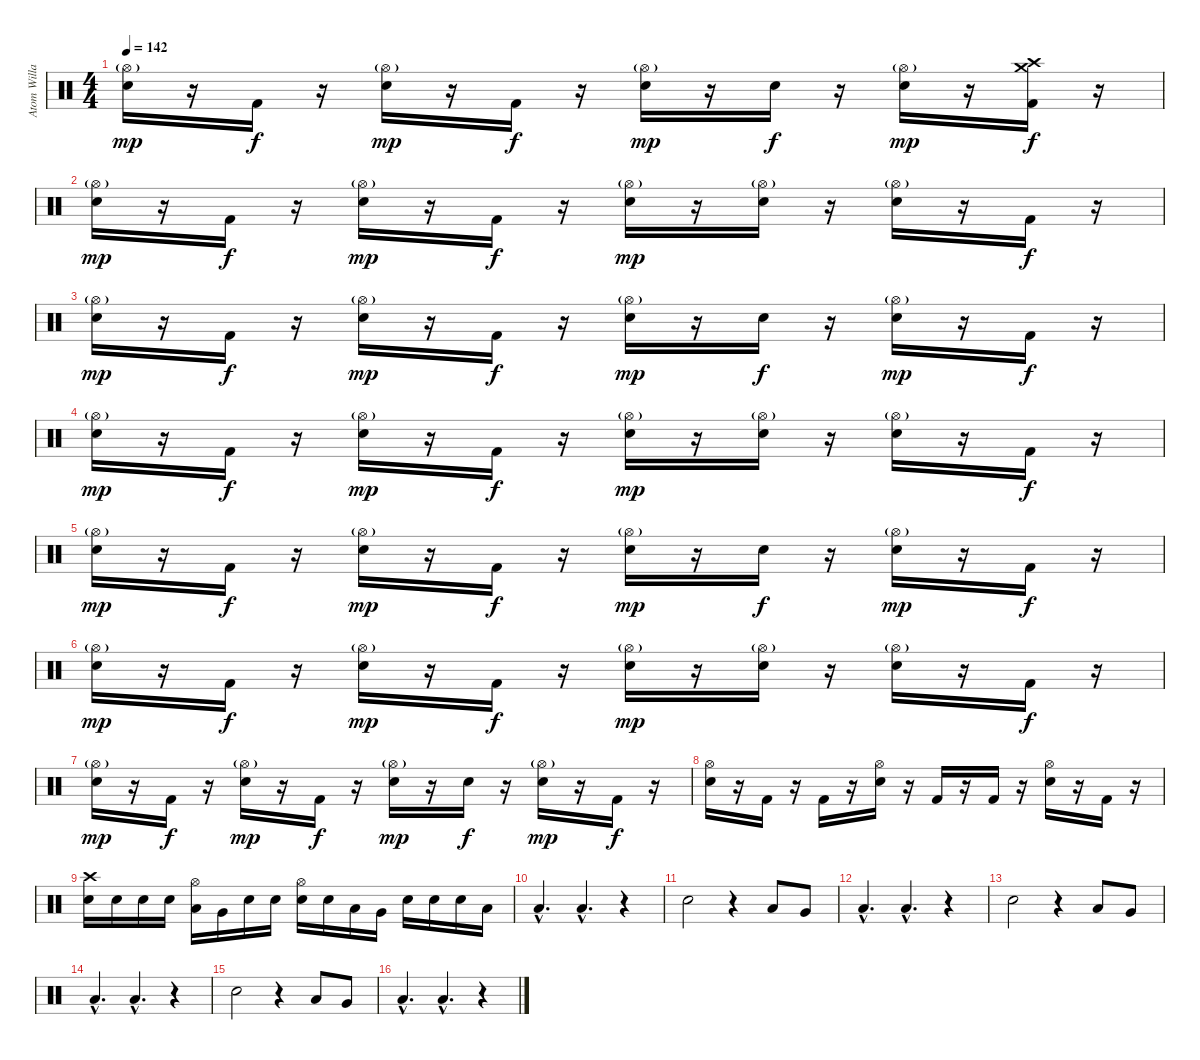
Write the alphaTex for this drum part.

\track ("Atom Willard" "Atom Willa") {instrument percussion}
\staff {score}
\articulation defaults
\ts (4 4)
\tempo 142
\clef neutral
\ks c
("Hi-Hat (open)"{g} "Electric Snare (hit)").16{dy mp} r.16 "Kick (hit) 2".16{dy f} r.16 ("Hi-Hat (open)"{g} "Electric Snare (hit)").16{dy mp} r.16 "Kick (hit) 2".16{dy f} r.16 ("Hi-Hat (open)"{g} "Electric Snare (hit)").16{dy mp} r.16 "Electric Snare (hit)".16{dy f} r.16 ("Hi-Hat (open)"{g} "Electric Snare (hit)").16{dy mp} r.16 ("Crash high (hit)" "Crash medium (hit)" "Kick (hit) 2").16{dy f} r.16 |
("Hi-Hat (open)"{g} "Electric Snare (hit)").16{dy mp} r.16 "Kick (hit) 2".16{dy f} r.16 ("Hi-Hat (open)"{g} "Electric Snare (hit)").16{dy mp} r.16 "Kick (hit) 2".16{dy f} r.16 ("Hi-Hat (open)"{g} "Electric Snare (hit)").16{dy mp} r.16 ("Hi-Hat (open)"{g} "Electric Snare (hit)").16 r.16 ("Hi-Hat (open)"{g} "Electric Snare (hit)").16 r.16 "Kick (hit) 2".16{dy f} r.16 |
("Hi-Hat (open)"{g} "Electric Snare (hit)").16{dy mp} r.16 "Kick (hit) 2".16{dy f} r.16 ("Hi-Hat (open)"{g} "Electric Snare (hit)").16{dy mp} r.16 "Kick (hit) 2".16{dy f} r.16 ("Hi-Hat (open)"{g} "Electric Snare (hit)").16{dy mp} r.16 "Electric Snare (hit)".16{dy f} r.16 ("Hi-Hat (open)"{g} "Electric Snare (hit)").16{dy mp} r.16 "Kick (hit) 2".16{dy f} r.16 |
("Hi-Hat (open)"{g} "Electric Snare (hit)").16{dy mp} r.16 "Kick (hit) 2".16{dy f} r.16 ("Hi-Hat (open)"{g} "Electric Snare (hit)").16{dy mp} r.16 "Kick (hit) 2".16{dy f} r.16 ("Hi-Hat (open)"{g} "Electric Snare (hit)").16{dy mp} r.16 ("Hi-Hat (open)"{g} "Electric Snare (hit)").16 r.16 ("Hi-Hat (open)"{g} "Electric Snare (hit)").16 r.16 "Kick (hit) 2".16{dy f} r.16 |
("Hi-Hat (open)"{g} "Electric Snare (hit)").16{dy mp} r.16 "Kick (hit) 2".16{dy f} r.16 ("Hi-Hat (open)"{g} "Electric Snare (hit)").16{dy mp} r.16 "Kick (hit) 2".16{dy f} r.16 ("Hi-Hat (open)"{g} "Electric Snare (hit)").16{dy mp} r.16 "Electric Snare (hit)".16{dy f} r.16 ("Hi-Hat (open)"{g} "Electric Snare (hit)").16{dy mp} r.16 "Kick (hit) 2".16{dy f} r.16 |
("Hi-Hat (open)"{g} "Electric Snare (hit)").16{dy mp} r.16 "Kick (hit) 2".16{dy f} r.16 ("Hi-Hat (open)"{g} "Electric Snare (hit)").16{dy mp} r.16 "Kick (hit) 2".16{dy f} r.16 ("Hi-Hat (open)"{g} "Electric Snare (hit)").16{dy mp} r.16 ("Hi-Hat (open)"{g} "Electric Snare (hit)").16 r.16 ("Hi-Hat (open)"{g} "Electric Snare (hit)").16 r.16 "Kick (hit) 2".16{dy f} r.16 |
("Hi-Hat (open)"{g} "Electric Snare (hit)").16{dy mp} r.16 "Kick (hit) 2".16{dy f} r.16 ("Hi-Hat (open)"{g} "Electric Snare (hit)").16{dy mp} r.16 "Kick (hit) 2".16{dy f} r.16 ("Hi-Hat (open)"{g} "Electric Snare (hit)").16{dy mp} r.16 "Electric Snare (hit)".16{dy f} r.16 ("Hi-Hat (open)"{g} "Electric Snare (hit)").16{dy mp} r.16 "Kick (hit) 2".16{dy f} r.16 |
("Hi-Hat (open)" "Electric Snare (hit)").16 r.16 "Kick (hit) 2".16 r.16 "Kick (hit) 2".16 r.16 ("Hi-Hat (open)" "Electric Snare (hit)").16 r.16 "Kick (hit) 2".16 r.16 "Kick (hit) 2".16 r.16 ("Hi-Hat (open)" "Electric Snare (hit)").16 r.16 "Kick (hit) 2".16 r.16 |
("Crash high (hit)" "Electric Snare (hit)").16 "Electric Snare (hit)".16 "Electric Snare (hit)".16 "Electric Snare (hit)".16 ("Hi-Hat (open)" "Low Tom (hit)").16 "Very Low Tom (hit)".16 "Electric Snare (hit)".16 "Electric Snare (hit)".16 ("Hi-Hat (open)" "Electric Snare (hit)").16 "Electric Snare (hit)".16 "Low Tom (hit)".16 "Very Low Tom (hit)".16 "Electric Snare (hit)".16 "Electric Snare (hit)".16 "Electric Snare (hit)".16 "Low Tom (hit)".16 |
"Low Tom (hit)"{hac}.4{d} "Low Tom (hit)"{hac}.4{d} r.4 |
"Electric Snare (hit)".2 r.4 "Low Tom (hit)".8 "Very Low Tom (hit)".8 |
"Low Tom (hit)"{hac}.4{d} "Low Tom (hit)"{hac}.4{d} r.4 |
"Electric Snare (hit)".2 r.4 "Low Tom (hit)".8 "Very Low Tom (hit)".8 |
"Low Tom (hit)"{hac}.4{d} "Low Tom (hit)"{hac}.4{d} r.4 |
"Electric Snare (hit)".2 r.4 "Low Tom (hit)".8 "Very Low Tom (hit)".8 |
"Low Tom (hit)"{hac}.4{d} "Low Tom (hit)"{hac}.4{d} r.4
